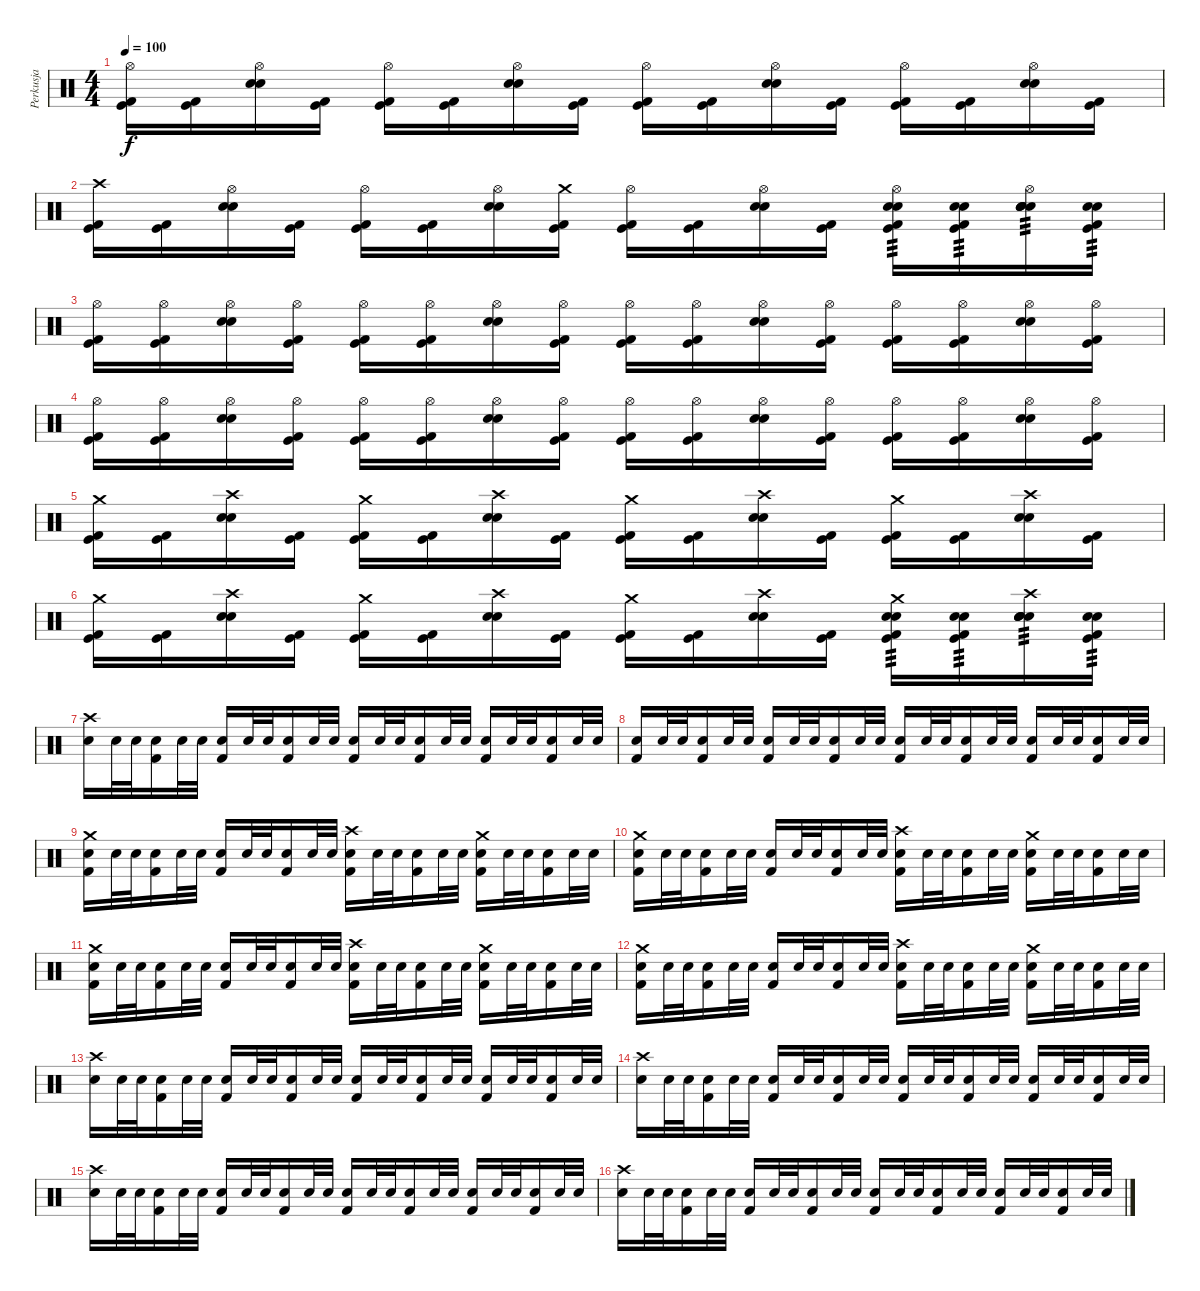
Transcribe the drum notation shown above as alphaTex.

\track ("Perkusja" "Perkusja") {instrument percussion}
\staff {score}
\articulation defaults
\ts (4 4)
\tempo 100
\clef neutral
\ks c
("Kick (hit) 2" "Kick (hit)" "Hi-Hat (open)").16{dy f} ("Kick (hit) 2" "Kick (hit)").16 ("Snare (hit) 2" "Electric Snare (hit)" "Hi-Hat (open)").16 ("Kick (hit) 2" "Kick (hit)").16 ("Kick (hit) 2" "Kick (hit)" "Hi-Hat (open)").16 ("Kick (hit) 2" "Kick (hit)").16 ("Snare (hit) 2" "Electric Snare (hit)" "Hi-Hat (open)").16 ("Kick (hit) 2" "Kick (hit)").16 ("Kick (hit) 2" "Kick (hit)" "Hi-Hat (open)").16 ("Kick (hit) 2" "Kick (hit)").16 ("Snare (hit) 2" "Electric Snare (hit)" "Hi-Hat (open)").16 ("Kick (hit) 2" "Kick (hit)").16 ("Kick (hit) 2" "Kick (hit)" "Hi-Hat (open)").16 ("Kick (hit) 2" "Kick (hit)").16 ("Snare (hit) 2" "Electric Snare (hit)" "Hi-Hat (open)").16 ("Kick (hit) 2" "Kick (hit)").16 |
("Kick (hit) 2" "Kick (hit)" "Crash high (hit)").16 ("Kick (hit) 2" "Kick (hit)").16 ("Snare (hit) 2" "Electric Snare (hit)" "Hi-Hat (open)").16 ("Kick (hit) 2" "Kick (hit)").16 ("Kick (hit) 2" "Kick (hit)" "Hi-Hat (open)").16 ("Kick (hit) 2" "Kick (hit)").16 ("Snare (hit) 2" "Electric Snare (hit)" "Hi-Hat (open)").16 ("Kick (hit) 2" "Kick (hit)" "Crash medium (hit)").16 ("Kick (hit) 2" "Kick (hit)" "Hi-Hat (open)").16 ("Kick (hit) 2" "Kick (hit)").16 ("Snare (hit) 2" "Electric Snare (hit)" "Hi-Hat (open)").16 ("Kick (hit) 2" "Kick (hit)").16 ("Kick (hit) 2" "Kick (hit)" "Hi-Hat (open)" "Snare (hit) 2" "Electric Snare (hit)").16{tp 3} ("Kick (hit) 2" "Kick (hit)" "Snare (hit) 2" "Electric Snare (hit)").16{tp 3} ("Snare (hit) 2" "Electric Snare (hit)" "Hi-Hat (open)" "Snare (hit) 2" "Electric Snare (hit)").16{tp 3} ("Kick (hit) 2" "Kick (hit)" "Snare (hit) 2" "Electric Snare (hit)").16{tp 3} |
("Kick (hit) 2" "Kick (hit)" "Hi-Hat (open)").16 ("Kick (hit) 2" "Kick (hit)" "Hi-Hat (open)").16 ("Snare (hit) 2" "Electric Snare (hit)" "Hi-Hat (open)").16 ("Kick (hit) 2" "Kick (hit)" "Hi-Hat (open)").16 ("Kick (hit) 2" "Kick (hit)" "Hi-Hat (open)").16 ("Kick (hit) 2" "Kick (hit)" "Hi-Hat (open)").16 ("Snare (hit) 2" "Electric Snare (hit)" "Hi-Hat (open)").16 ("Kick (hit) 2" "Kick (hit)" "Hi-Hat (open)").16 ("Kick (hit) 2" "Kick (hit)" "Hi-Hat (open)").16 ("Kick (hit) 2" "Kick (hit)" "Hi-Hat (open)").16 ("Snare (hit) 2" "Electric Snare (hit)" "Hi-Hat (open)").16 ("Kick (hit) 2" "Kick (hit)" "Hi-Hat (open)").16 ("Kick (hit) 2" "Kick (hit)" "Hi-Hat (open)").16 ("Kick (hit) 2" "Kick (hit)" "Hi-Hat (open)").16 ("Snare (hit) 2" "Electric Snare (hit)" "Hi-Hat (open)").16 ("Kick (hit) 2" "Kick (hit)" "Hi-Hat (open)").16 |
("Kick (hit) 2" "Kick (hit)" "Hi-Hat (open)").16 ("Kick (hit) 2" "Kick (hit)" "Hi-Hat (open)").16 ("Snare (hit) 2" "Electric Snare (hit)" "Hi-Hat (open)").16 ("Kick (hit) 2" "Kick (hit)" "Hi-Hat (open)").16 ("Kick (hit) 2" "Kick (hit)" "Hi-Hat (open)").16 ("Kick (hit) 2" "Kick (hit)" "Hi-Hat (open)").16 ("Snare (hit) 2" "Electric Snare (hit)" "Hi-Hat (open)").16 ("Kick (hit) 2" "Kick (hit)" "Hi-Hat (open)").16 ("Kick (hit) 2" "Kick (hit)" "Hi-Hat (open)").16 ("Kick (hit) 2" "Kick (hit)" "Hi-Hat (open)").16 ("Snare (hit) 2" "Electric Snare (hit)" "Hi-Hat (open)").16 ("Kick (hit) 2" "Kick (hit)" "Hi-Hat (open)").16 ("Kick (hit) 2" "Kick (hit)" "Hi-Hat (open)").16 ("Kick (hit) 2" "Kick (hit)" "Hi-Hat (open)").16 ("Snare (hit) 2" "Electric Snare (hit)" "Hi-Hat (open)").16 ("Kick (hit) 2" "Kick (hit)" "Hi-Hat (open)").16 |
("Kick (hit) 2" "Kick (hit)" "Crash medium (hit)").16 ("Kick (hit) 2" "Kick (hit)").16 ("Snare (hit) 2" "Electric Snare (hit)" "Crash high (hit)").16 ("Kick (hit) 2" "Kick (hit)").16 ("Kick (hit) 2" "Kick (hit)" "Crash medium (hit)").16 ("Kick (hit) 2" "Kick (hit)").16 ("Snare (hit) 2" "Electric Snare (hit)" "Crash high (hit)").16 ("Kick (hit) 2" "Kick (hit)").16 ("Kick (hit) 2" "Kick (hit)" "Crash medium (hit)").16 ("Kick (hit) 2" "Kick (hit)").16 ("Snare (hit) 2" "Electric Snare (hit)" "Crash high (hit)").16 ("Kick (hit) 2" "Kick (hit)").16 ("Kick (hit) 2" "Kick (hit)" "Crash medium (hit)").16 ("Kick (hit) 2" "Kick (hit)").16 ("Snare (hit) 2" "Electric Snare (hit)" "Crash high (hit)").16 ("Kick (hit) 2" "Kick (hit)").16 |
("Kick (hit) 2" "Kick (hit)" "Crash medium (hit)").16 ("Kick (hit) 2" "Kick (hit)").16 ("Snare (hit) 2" "Electric Snare (hit)" "Crash high (hit)").16 ("Kick (hit) 2" "Kick (hit)").16 ("Kick (hit) 2" "Kick (hit)" "Crash medium (hit)").16 ("Kick (hit) 2" "Kick (hit)").16 ("Snare (hit) 2" "Electric Snare (hit)" "Crash high (hit)").16 ("Kick (hit) 2" "Kick (hit)").16 ("Kick (hit) 2" "Kick (hit)" "Crash medium (hit)").16 ("Kick (hit) 2" "Kick (hit)").16 ("Snare (hit) 2" "Electric Snare (hit)" "Crash high (hit)").16 ("Kick (hit) 2" "Kick (hit)").16 ("Kick (hit) 2" "Kick (hit)" "Crash medium (hit)" "Snare (hit) 2" "Electric Snare (hit)").16{tp 3} ("Kick (hit) 2" "Kick (hit)" "Snare (hit) 2" "Electric Snare (hit)").16{tp 3} ("Snare (hit) 2" "Electric Snare (hit)" "Crash high (hit)" "Snare (hit) 2" "Electric Snare (hit)").16{tp 3} ("Kick (hit) 2" "Kick (hit)" "Snare (hit) 2" "Electric Snare (hit)").16{tp 3} |
("Snare (hit) 2" "Crash high (hit)").16 "Snare (hit) 2".32 "Snare (hit) 2".32 ("Snare (hit) 2" "Kick (hit) 2").16 "Snare (hit) 2".32 "Snare (hit) 2".32 ("Snare (hit) 2" "Kick (hit) 2").16 "Snare (hit) 2".32 "Snare (hit) 2".32 ("Snare (hit) 2" "Kick (hit) 2").16 "Snare (hit) 2".32 "Snare (hit) 2".32 ("Snare (hit) 2" "Kick (hit) 2").16 "Snare (hit) 2".32 "Snare (hit) 2".32 ("Snare (hit) 2" "Kick (hit) 2").16 "Snare (hit) 2".32 "Snare (hit) 2".32 ("Snare (hit) 2" "Kick (hit) 2").16 "Snare (hit) 2".32 "Snare (hit) 2".32 ("Snare (hit) 2" "Kick (hit) 2").16 "Snare (hit) 2".32 "Snare (hit) 2".32 |
("Snare (hit) 2" "Kick (hit) 2").16 "Snare (hit) 2".32 "Snare (hit) 2".32 ("Snare (hit) 2" "Kick (hit) 2").16 "Snare (hit) 2".32 "Snare (hit) 2".32 ("Snare (hit) 2" "Kick (hit) 2").16 "Snare (hit) 2".32 "Snare (hit) 2".32 ("Snare (hit) 2" "Kick (hit) 2").16 "Snare (hit) 2".32 "Snare (hit) 2".32 ("Snare (hit) 2" "Kick (hit) 2").16 "Snare (hit) 2".32 "Snare (hit) 2".32 ("Snare (hit) 2" "Kick (hit) 2").16 "Snare (hit) 2".32 "Snare (hit) 2".32 ("Snare (hit) 2" "Kick (hit) 2").16 "Snare (hit) 2".32 "Snare (hit) 2".32 ("Snare (hit) 2" "Kick (hit) 2").16 "Snare (hit) 2".32 "Snare (hit) 2".32 |
("Snare (hit) 2" "Kick (hit) 2" "Crash medium (hit)").16 "Snare (hit) 2".32 "Snare (hit) 2".32 ("Snare (hit) 2" "Kick (hit) 2").16 "Snare (hit) 2".32 "Snare (hit) 2".32 ("Snare (hit) 2" "Kick (hit) 2").16 "Snare (hit) 2".32 "Snare (hit) 2".32 ("Snare (hit) 2" "Kick (hit) 2").16 "Snare (hit) 2".32 "Snare (hit) 2".32 ("Snare (hit) 2" "Kick (hit) 2" "Crash high (hit)").16 "Snare (hit) 2".32 "Snare (hit) 2".32 ("Snare (hit) 2" "Kick (hit) 2").16 "Snare (hit) 2".32 "Snare (hit) 2".32 ("Snare (hit) 2" "Kick (hit) 2" "Crash medium (hit)").16 "Snare (hit) 2".32 "Snare (hit) 2".32 ("Snare (hit) 2" "Kick (hit) 2").16 "Snare (hit) 2".32 "Snare (hit) 2".32 |
("Snare (hit) 2" "Kick (hit) 2" "Crash medium (hit)").16 "Snare (hit) 2".32 "Snare (hit) 2".32 ("Snare (hit) 2" "Kick (hit) 2").16 "Snare (hit) 2".32 "Snare (hit) 2".32 ("Snare (hit) 2" "Kick (hit) 2").16 "Snare (hit) 2".32 "Snare (hit) 2".32 ("Snare (hit) 2" "Kick (hit) 2").16 "Snare (hit) 2".32 "Snare (hit) 2".32 ("Snare (hit) 2" "Kick (hit) 2" "Crash high (hit)").16 "Snare (hit) 2".32 "Snare (hit) 2".32 ("Snare (hit) 2" "Kick (hit) 2").16 "Snare (hit) 2".32 "Snare (hit) 2".32 ("Snare (hit) 2" "Kick (hit) 2" "Crash medium (hit)").16 "Snare (hit) 2".32 "Snare (hit) 2".32 ("Snare (hit) 2" "Kick (hit) 2").16 "Snare (hit) 2".32 "Snare (hit) 2".32 |
("Snare (hit) 2" "Kick (hit) 2" "Crash medium (hit)").16 "Snare (hit) 2".32 "Snare (hit) 2".32 ("Snare (hit) 2" "Kick (hit) 2").16 "Snare (hit) 2".32 "Snare (hit) 2".32 ("Snare (hit) 2" "Kick (hit) 2").16 "Snare (hit) 2".32 "Snare (hit) 2".32 ("Snare (hit) 2" "Kick (hit) 2").16 "Snare (hit) 2".32 "Snare (hit) 2".32 ("Snare (hit) 2" "Kick (hit) 2" "Crash high (hit)").16 "Snare (hit) 2".32 "Snare (hit) 2".32 ("Snare (hit) 2" "Kick (hit) 2").16 "Snare (hit) 2".32 "Snare (hit) 2".32 ("Snare (hit) 2" "Kick (hit) 2" "Crash medium (hit)").16 "Snare (hit) 2".32 "Snare (hit) 2".32 ("Snare (hit) 2" "Kick (hit) 2").16 "Snare (hit) 2".32 "Snare (hit) 2".32 |
("Snare (hit) 2" "Kick (hit) 2" "Crash medium (hit)").16 "Snare (hit) 2".32 "Snare (hit) 2".32 ("Snare (hit) 2" "Kick (hit) 2").16 "Snare (hit) 2".32 "Snare (hit) 2".32 ("Snare (hit) 2" "Kick (hit) 2").16 "Snare (hit) 2".32 "Snare (hit) 2".32 ("Snare (hit) 2" "Kick (hit) 2").16 "Snare (hit) 2".32 "Snare (hit) 2".32 ("Snare (hit) 2" "Kick (hit) 2" "Crash high (hit)").16 "Snare (hit) 2".32 "Snare (hit) 2".32 ("Snare (hit) 2" "Kick (hit) 2").16 "Snare (hit) 2".32 "Snare (hit) 2".32 ("Snare (hit) 2" "Kick (hit) 2" "Crash medium (hit)").16 "Snare (hit) 2".32 "Snare (hit) 2".32 ("Snare (hit) 2" "Kick (hit) 2").16 "Snare (hit) 2".32 "Snare (hit) 2".32 |
("Snare (hit) 2" "Crash high (hit)").16 "Snare (hit) 2".32 "Snare (hit) 2".32 ("Snare (hit) 2" "Kick (hit) 2").16 "Snare (hit) 2".32 "Snare (hit) 2".32 ("Snare (hit) 2" "Kick (hit) 2").16 "Snare (hit) 2".32 "Snare (hit) 2".32 ("Snare (hit) 2" "Kick (hit) 2").16 "Snare (hit) 2".32 "Snare (hit) 2".32 ("Snare (hit) 2" "Kick (hit) 2").16 "Snare (hit) 2".32 "Snare (hit) 2".32 ("Snare (hit) 2" "Kick (hit) 2").16 "Snare (hit) 2".32 "Snare (hit) 2".32 ("Snare (hit) 2" "Kick (hit) 2").16 "Snare (hit) 2".32 "Snare (hit) 2".32 ("Snare (hit) 2" "Kick (hit) 2").16 "Snare (hit) 2".32 "Snare (hit) 2".32 |
("Snare (hit) 2" "Crash high (hit)").16 "Snare (hit) 2".32 "Snare (hit) 2".32 ("Snare (hit) 2" "Kick (hit) 2").16 "Snare (hit) 2".32 "Snare (hit) 2".32 ("Snare (hit) 2" "Kick (hit) 2").16 "Snare (hit) 2".32 "Snare (hit) 2".32 ("Snare (hit) 2" "Kick (hit) 2").16 "Snare (hit) 2".32 "Snare (hit) 2".32 ("Snare (hit) 2" "Kick (hit) 2").16 "Snare (hit) 2".32 "Snare (hit) 2".32 ("Snare (hit) 2" "Kick (hit) 2").16 "Snare (hit) 2".32 "Snare (hit) 2".32 ("Snare (hit) 2" "Kick (hit) 2").16 "Snare (hit) 2".32 "Snare (hit) 2".32 ("Snare (hit) 2" "Kick (hit) 2").16 "Snare (hit) 2".32 "Snare (hit) 2".32 |
("Snare (hit) 2" "Crash high (hit)").16 "Snare (hit) 2".32 "Snare (hit) 2".32 ("Snare (hit) 2" "Kick (hit) 2").16 "Snare (hit) 2".32 "Snare (hit) 2".32 ("Snare (hit) 2" "Kick (hit) 2").16 "Snare (hit) 2".32 "Snare (hit) 2".32 ("Snare (hit) 2" "Kick (hit) 2").16 "Snare (hit) 2".32 "Snare (hit) 2".32 ("Snare (hit) 2" "Kick (hit) 2").16 "Snare (hit) 2".32 "Snare (hit) 2".32 ("Snare (hit) 2" "Kick (hit) 2").16 "Snare (hit) 2".32 "Snare (hit) 2".32 ("Snare (hit) 2" "Kick (hit) 2").16 "Snare (hit) 2".32 "Snare (hit) 2".32 ("Snare (hit) 2" "Kick (hit) 2").16 "Snare (hit) 2".32 "Snare (hit) 2".32 |
("Snare (hit) 2" "Crash high (hit)").16 "Snare (hit) 2".32 "Snare (hit) 2".32 ("Snare (hit) 2" "Kick (hit) 2").16 "Snare (hit) 2".32 "Snare (hit) 2".32 ("Snare (hit) 2" "Kick (hit) 2").16 "Snare (hit) 2".32 "Snare (hit) 2".32 ("Snare (hit) 2" "Kick (hit) 2").16 "Snare (hit) 2".32 "Snare (hit) 2".32 ("Snare (hit) 2" "Kick (hit) 2").16 "Snare (hit) 2".32 "Snare (hit) 2".32 ("Snare (hit) 2" "Kick (hit) 2").16 "Snare (hit) 2".32 "Snare (hit) 2".32 ("Snare (hit) 2" "Kick (hit) 2").16 "Snare (hit) 2".32 "Snare (hit) 2".32 ("Snare (hit) 2" "Kick (hit) 2").16 "Snare (hit) 2".32 "Snare (hit) 2".32
